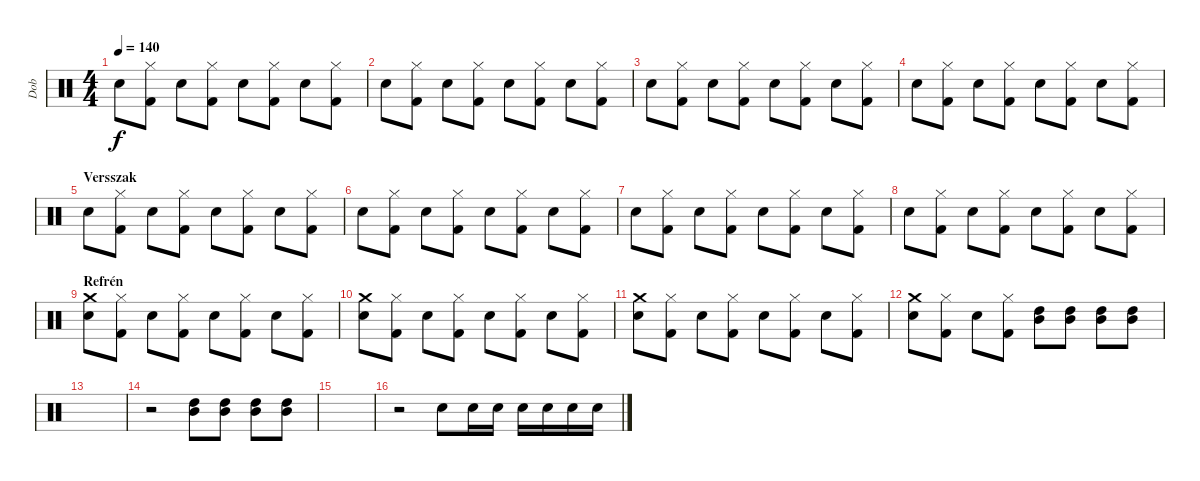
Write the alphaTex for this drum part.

\track ("Dob" "Dob") {instrument percussion}
\staff {score}
\articulation defaults
\ts (4 4)
\tempo 140
\clef neutral
\ks c "Electric Snare (hit)".8{dy f}
("Kick (hit) 2" "Hi-Hat (closed)").8 "Electric Snare (hit)".8 ("Kick (hit) 2" "Hi-Hat (closed)").8 "Electric Snare (hit)".8 ("Kick (hit) 2" "Hi-Hat (closed)").8 "Electric Snare (hit)".8 ("Kick (hit) 2" "Hi-Hat (closed)").8 |
"Electric Snare (hit)".8 ("Kick (hit) 2" "Hi-Hat (closed)").8 "Electric Snare (hit)".8 ("Kick (hit) 2" "Hi-Hat (closed)").8 "Electric Snare (hit)".8 ("Kick (hit) 2" "Hi-Hat (closed)").8 "Electric Snare (hit)".8 ("Kick (hit) 2" "Hi-Hat (closed)").8 |
"Electric Snare (hit)".8 ("Kick (hit) 2" "Hi-Hat (closed)").8 "Electric Snare (hit)".8 ("Kick (hit) 2" "Hi-Hat (closed)").8 "Electric Snare (hit)".8 ("Kick (hit) 2" "Hi-Hat (closed)").8 "Electric Snare (hit)".8 ("Kick (hit) 2" "Hi-Hat (closed)").8 |
"Electric Snare (hit)".8 ("Kick (hit) 2" "Hi-Hat (closed)").8 "Electric Snare (hit)".8 ("Kick (hit) 2" "Hi-Hat (closed)").8 "Electric Snare (hit)".8 ("Kick (hit) 2" "Hi-Hat (closed)").8 "Electric Snare (hit)".8 ("Kick (hit) 2" "Hi-Hat (closed)").8 |
\section ("" "Versszak")
"Electric Snare (hit)".8 ("Kick (hit) 2" "Hi-Hat (closed)").8 "Electric Snare (hit)".8 ("Kick (hit) 2" "Hi-Hat (closed)").8 "Electric Snare (hit)".8 ("Kick (hit) 2" "Hi-Hat (closed)").8 "Electric Snare (hit)".8 ("Kick (hit) 2" "Hi-Hat (closed)").8 |
"Electric Snare (hit)".8 ("Kick (hit) 2" "Hi-Hat (closed)").8 "Electric Snare (hit)".8 ("Kick (hit) 2" "Hi-Hat (closed)").8 "Electric Snare (hit)".8 ("Kick (hit) 2" "Hi-Hat (closed)").8 "Electric Snare (hit)".8 ("Kick (hit) 2" "Hi-Hat (closed)").8 |
"Electric Snare (hit)".8 ("Kick (hit) 2" "Hi-Hat (closed)").8 "Electric Snare (hit)".8 ("Kick (hit) 2" "Hi-Hat (closed)").8 "Electric Snare (hit)".8 ("Kick (hit) 2" "Hi-Hat (closed)").8 "Electric Snare (hit)".8 ("Kick (hit) 2" "Hi-Hat (closed)").8 |
"Electric Snare (hit)".8 ("Kick (hit) 2" "Hi-Hat (closed)").8 "Electric Snare (hit)".8 ("Kick (hit) 2" "Hi-Hat (closed)").8 "Electric Snare (hit)".8 ("Kick (hit) 2" "Hi-Hat (closed)").8 "Electric Snare (hit)".8 ("Kick (hit) 2" "Hi-Hat (closed)").8 |
\section ("" "Refrén")
("Electric Snare (hit)" "Crash medium (hit)").8 ("Kick (hit) 2" "Hi-Hat (closed)").8 "Electric Snare (hit)".8 ("Kick (hit) 2" "Hi-Hat (closed)").8 "Electric Snare (hit)".8 ("Kick (hit) 2" "Hi-Hat (closed)").8 "Electric Snare (hit)".8 ("Kick (hit) 2" "Hi-Hat (closed)").8 |
("Electric Snare (hit)" "Crash medium (hit)").8 ("Kick (hit) 2" "Hi-Hat (closed)").8 "Electric Snare (hit)".8 ("Kick (hit) 2" "Hi-Hat (closed)").8 "Electric Snare (hit)".8 ("Kick (hit) 2" "Hi-Hat (closed)").8 "Electric Snare (hit)".8 ("Kick (hit) 2" "Hi-Hat (closed)").8 |
("Electric Snare (hit)" "Crash medium (hit)").8 ("Kick (hit) 2" "Hi-Hat (closed)").8 "Electric Snare (hit)".8 ("Kick (hit) 2" "Hi-Hat (closed)").8 "Electric Snare (hit)".8 ("Kick (hit) 2" "Hi-Hat (closed)").8 "Electric Snare (hit)".8 ("Kick (hit) 2" "Hi-Hat (closed)").8 |
("Electric Snare (hit)" "Crash medium (hit)").8 ("Kick (hit) 2" "Hi-Hat (closed)").8 "Electric Snare (hit)".8 ("Kick (hit) 2" "Hi-Hat (closed)").8 ("High Tom (hit)" "Mid Tom (hit)").8 ("High Tom (hit)" "Mid Tom (hit)").8 ("High Tom (hit)" "Mid Tom (hit)").8 ("High Tom (hit)" "Mid Tom (hit)").8 |
|
r.2 ("High Tom (hit)" "Mid Tom (hit)").8 ("High Tom (hit)" "Mid Tom (hit)").8 ("High Tom (hit)" "Mid Tom (hit)").8 ("High Tom (hit)" "Mid Tom (hit)").8 |
|
r.2 "Electric Snare (hit)".8 "Electric Snare (hit)".16 "Electric Snare (hit)".16 "Electric Snare (hit)".16 "Electric Snare (hit)".16 "Electric Snare (hit)".16 "Electric Snare (hit)".16
